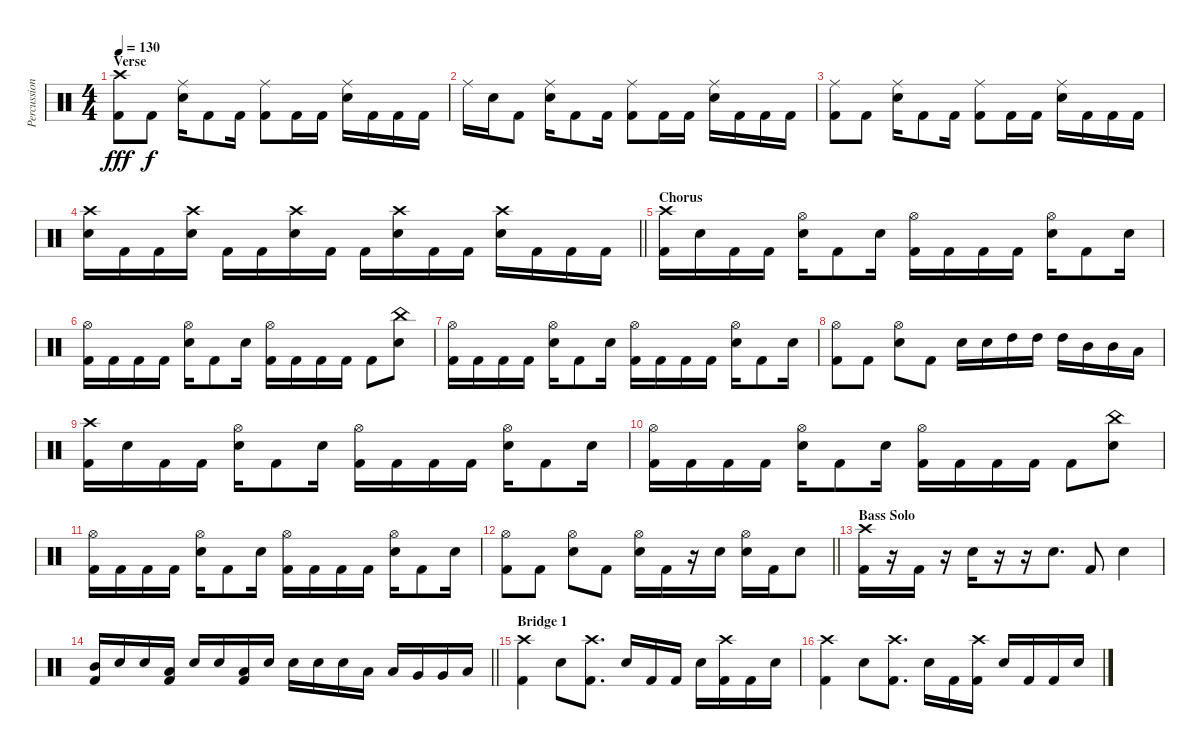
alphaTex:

\track ("Percussion" "Percussion") {instrument percussion}
\staff {score}
\articulation defaults
\ts (4 4)
\section ("" "Verse")
\tempo 130
\clef neutral
\ks c
("Crash high (hit)" "Kick (hit) 2").8{dy fff} "Kick (hit) 2".8{dy f} ("Ride (middle)" "Snare (hit) 2").16 "Kick (hit) 2".8 "Kick (hit) 2".16 ("Ride (middle)" "Kick (hit) 2").8 "Kick (hit) 2".16 "Kick (hit) 2".16 ("Ride (middle)" "Snare (hit) 2").16 "Kick (hit) 2".16 "Kick (hit) 2".16 "Kick (hit) 2".16 |
"Ride (middle)".16 "Snare (hit) 2".16 "Kick (hit) 2".8 ("Snare (hit) 2" "Ride (middle)").16 "Kick (hit) 2".8 "Kick (hit) 2".16 ("Kick (hit) 2" "Ride (middle)").8 "Kick (hit) 2".16 "Kick (hit) 2".16 ("Ride (middle)" "Snare (hit) 2").16 "Kick (hit) 2".16 "Kick (hit) 2".16 "Kick (hit) 2".16 |
("Ride (middle)" "Kick (hit) 2").8 "Kick (hit) 2".8 ("Ride (middle)" "Snare (hit) 2").16 "Kick (hit) 2".8 "Kick (hit) 2".16 ("Ride (middle)" "Kick (hit) 2").8 "Kick (hit) 2".16 "Kick (hit) 2".16 ("Ride (middle)" "Snare (hit) 2").16 "Kick (hit) 2".16 "Kick (hit) 2".16 "Kick (hit) 2".16 |
\barLineRight lightlight
("Snare (hit) 2" "Crash high (hit)").16 "Kick (hit) 2".16 "Kick (hit) 2".16 ("Snare (hit) 2" "Crash high (hit)").16 "Kick (hit) 2".16 "Kick (hit) 2".16 ("Snare (hit) 2" "Crash high (hit)").16 "Kick (hit) 2".16 "Kick (hit) 2".16 ("Snare (hit) 2" "Crash high (hit)").16 "Kick (hit) 2".16 "Kick (hit) 2".16 ("Snare (hit) 2" "Crash high (hit)").16 "Kick (hit) 2".16 "Kick (hit) 2".16 "Kick (hit) 2".16 |
\section ("" "Chorus")
("Kick (hit) 2" "Crash high (hit)").16 "Snare (hit) 2".16 "Kick (hit) 2".16 "Kick (hit) 2".16 ("Snare (hit) 2" "Hi-Hat (open)").16 "Kick (hit) 2".8 "Snare (hit) 2".16 ("Kick (hit) 2" "Hi-Hat (open)").16 "Kick (hit) 2".16 "Kick (hit) 2".16 "Kick (hit) 2".16 ("Snare (hit) 2" "Hi-Hat (open)").16 "Kick (hit) 2".8 "Snare (hit) 2".16 |
("Kick (hit) 2" "Hi-Hat (open)").16 "Kick (hit) 2".16 "Kick (hit) 2".16 "Kick (hit) 2".16 ("Snare (hit) 2" "Hi-Hat (open)").16 "Kick (hit) 2".8 "Snare (hit) 2".16 ("Kick (hit) 2" "Hi-Hat (open)").16 "Kick (hit) 2".16 "Kick (hit) 2".16 "Kick (hit) 2".16 "Kick (hit) 2".8 ("Snare (hit) 2" "China (hit)").8 |
("Kick (hit) 2" "Hi-Hat (open)").16 "Kick (hit) 2".16 "Kick (hit) 2".16 "Kick (hit) 2".16 ("Snare (hit) 2" "Hi-Hat (open)").16 "Kick (hit) 2".8 "Snare (hit) 2".16 ("Kick (hit) 2" "Hi-Hat (open)").16 "Kick (hit) 2".16 "Kick (hit) 2".16 "Kick (hit) 2".16 ("Snare (hit) 2" "Hi-Hat (open)").16 "Kick (hit) 2".8 "Snare (hit) 2".16 |
("Kick (hit) 2" "Hi-Hat (open)").8 "Kick (hit) 2".8 ("Snare (hit) 2" "Hi-Hat (open)").8 "Kick (hit) 2".8 "Snare (hit) 2".16 "Snare (hit) 2".16 "High Tom (hit)".16 "High Tom (hit)".16 "High Tom (hit)".16 "Mid Tom (hit)".16 "Mid Tom (hit)".16 "Low Tom (hit)".16 |
("Kick (hit) 2" "Crash high (hit)").16 "Snare (hit) 2".16 "Kick (hit) 2".16 "Kick (hit) 2".16 ("Snare (hit) 2" "Hi-Hat (open)").16 "Kick (hit) 2".8 "Snare (hit) 2".16 ("Kick (hit) 2" "Hi-Hat (open)").16 "Kick (hit) 2".16 "Kick (hit) 2".16 "Kick (hit) 2".16 ("Snare (hit) 2" "Hi-Hat (open)").16 "Kick (hit) 2".8 "Snare (hit) 2".16 |
("Kick (hit) 2" "Hi-Hat (open)").16 "Kick (hit) 2".16 "Kick (hit) 2".16 "Kick (hit) 2".16 ("Snare (hit) 2" "Hi-Hat (open)").16 "Kick (hit) 2".8 "Snare (hit) 2".16 ("Kick (hit) 2" "Hi-Hat (open)").16 "Kick (hit) 2".16 "Kick (hit) 2".16 "Kick (hit) 2".16 "Kick (hit) 2".8 ("Snare (hit) 2" "China (hit)").8 |
("Kick (hit) 2" "Hi-Hat (open)").16 "Kick (hit) 2".16 "Kick (hit) 2".16 "Kick (hit) 2".16 ("Snare (hit) 2" "Hi-Hat (open)").16 "Kick (hit) 2".8 "Snare (hit) 2".16 ("Kick (hit) 2" "Hi-Hat (open)").16 "Kick (hit) 2".16 "Kick (hit) 2".16 "Kick (hit) 2".16 ("Snare (hit) 2" "Hi-Hat (open)").16 "Kick (hit) 2".8 "Snare (hit) 2".16 |
\barLineRight lightlight
("Kick (hit) 2" "Hi-Hat (open)").8 "Kick (hit) 2".8 ("Snare (hit) 2" "Hi-Hat (open)").8 "Kick (hit) 2".8 ("Snare (hit) 2" "Hi-Hat (open)").16 "Kick (hit) 2".16 r.16 "Snare (hit) 2".16 ("Snare (hit) 2" "Hi-Hat (open)").16 "Kick (hit) 2".16 "Snare (hit) 2".8 |
\section ("" "Bass Solo")
("Kick (hit) 2" "Crash high (hit)").16 r.16 "Kick (hit) 2".16 r.16 "Snare (hit) 2".16 r.16 r.16 "Snare (hit) 2".8{d} "Kick (hit) 2".8 "Snare (hit) 2".4 |
\barLineRight lightlight
("Kick (hit) 2" "Mid Tom (hit)").16 "Snare (hit) 2".16 "Snare (hit) 2".16 ("Kick (hit) 2" "Low Tom (hit)").16 "Snare (hit) 2".16 "Snare (hit) 2".16 ("Kick (hit) 2" "Low Tom (hit)").16 "Snare (hit) 2".16 "Snare (hit) 2".16 "Snare (hit) 2".16 "Snare (hit) 2".16 "Low Tom (hit)".16 "Low Tom (hit)".16 "Very Low Tom (hit)".16 "Very Low Tom (hit)".16 "Low Floor Tom (hit)".16 |
\section ("" "Bridge 1")
("Kick (hit) 2" "Crash high (hit)").4 "Snare (hit) 2".8 ("Kick (hit) 2" "Crash high (hit)").8{d} "Snare (hit) 2".16 "Kick (hit) 2".16 "Kick (hit) 2".16 "Snare (hit) 2".16 ("Kick (hit) 2" "Crash high (hit)").16 "Kick (hit) 2".16 "Snare (hit) 2".16 |
("Kick (hit) 2" "Crash high (hit)").4 "Snare (hit) 2".8 ("Kick (hit) 2" "Crash high (hit)").8{d} "Snare (hit) 2".16 "Kick (hit) 2".16 ("Kick (hit) 2" "Crash high (hit)").16 "Snare (hit) 2".16 "Kick (hit) 2".16 "Kick (hit) 2".16 "Snare (hit) 2".16
